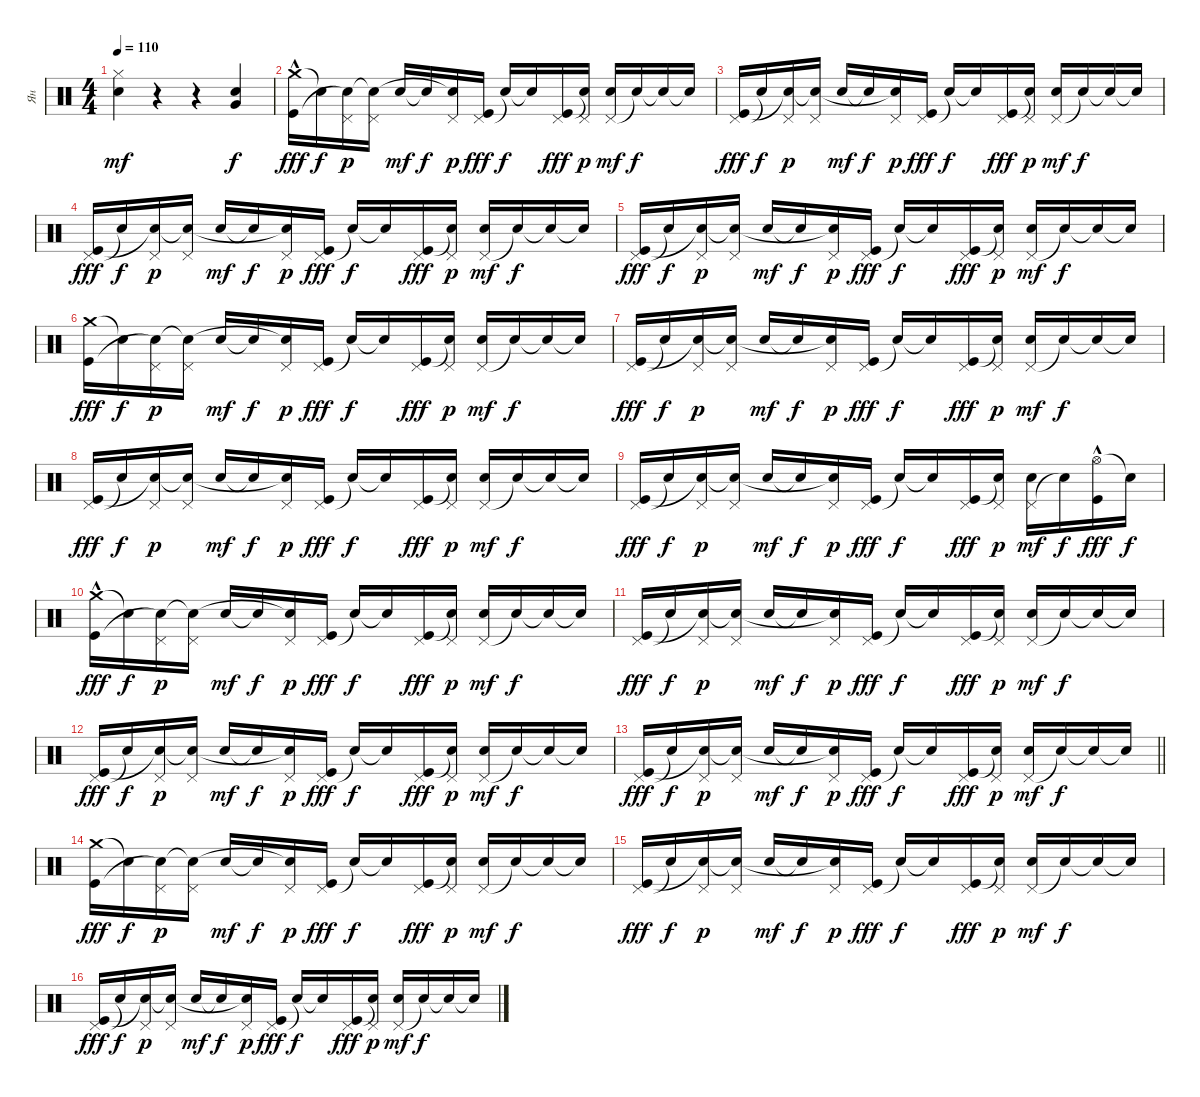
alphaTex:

\track ("Ян " "Ян ") {instrument percussion}
\staff
\articulation defaults
\ts (4 4)
\tempo 110
\clef neutral
\ks c
("Hi-Hat (closed)" "Snare (hit) 2").4{dy mf} r.4 r.4 ("Very Low Tom (hit)" "Snare (hit) 2").4{dy f} |
("Crash medium (hit)" "Kick (hit)"{hac}).16{dy fff} "Snare (hit)"{t}.16{dy f} ("Pedal Hi-Hat (hit)" "Snare (hit)"{t}).16{dy p} ("Pedal Hi-Hat (hit)" "Snare (hit)"{t}).16 "Snare (hit) 2".16{dy mf} "Snare (hit)"{t}.16{dy f} ("Pedal Hi-Hat (hit)" "Snare (hit)"{t}).16{dy p} ("Pedal Hi-Hat (hit)" "Kick (hit)").16{dy fff} "Snare (hit)"{t}.16{dy f} "Snare (hit)"{t}.16 ("Pedal Hi-Hat (hit)" "Kick (hit)").16{dy fff} ("Pedal Hi-Hat (hit)" "Snare (hit)"{t}).16{dy p} ("Pedal Hi-Hat (hit)" "Snare (hit) 2").16{dy mf} "Snare (hit)"{t}.16{dy f} "Snare (hit)"{t}.16 "Snare (hit)"{t}.16 |
("Pedal Hi-Hat (hit)" "Kick (hit)").16{dy fff} "Snare (hit)"{t}.16{dy f} ("Pedal Hi-Hat (hit)" "Snare (hit)"{t}).16{dy p} ("Pedal Hi-Hat (hit)" "Snare (hit)"{t}).16 "Snare (hit) 2".16{dy mf} "Snare (hit)"{t}.16{dy f} ("Pedal Hi-Hat (hit)" "Snare (hit)"{t}).16{dy p} ("Pedal Hi-Hat (hit)" "Kick (hit)").16{dy fff} "Snare (hit)"{t}.16{dy f} "Snare (hit)"{t}.16 ("Pedal Hi-Hat (hit)" "Kick (hit)").16{dy fff} ("Pedal Hi-Hat (hit)" "Snare (hit)"{t}).16{dy p} ("Pedal Hi-Hat (hit)" "Snare (hit) 2").16{dy mf} "Snare (hit)"{t}.16{dy f} "Snare (hit)"{t}.16 "Snare (hit)"{t}.16 |
("Pedal Hi-Hat (hit)" "Kick (hit)").16{dy fff} "Snare (hit)"{t}.16{dy f} ("Pedal Hi-Hat (hit)" "Snare (hit)"{t}).16{dy p} ("Pedal Hi-Hat (hit)" "Snare (hit)"{t}).16 "Snare (hit) 2".16{dy mf} "Snare (hit)"{t}.16{dy f} ("Pedal Hi-Hat (hit)" "Snare (hit)"{t}).16{dy p} ("Pedal Hi-Hat (hit)" "Kick (hit)").16{dy fff} "Snare (hit)"{t}.16{dy f} "Snare (hit)"{t}.16 ("Pedal Hi-Hat (hit)" "Kick (hit)").16{dy fff} ("Pedal Hi-Hat (hit)" "Snare (hit)"{t}).16{dy p} ("Pedal Hi-Hat (hit)" "Snare (hit) 2").16{dy mf} "Snare (hit)"{t}.16{dy f} "Snare (hit)"{t}.16 "Snare (hit)"{t}.16 |
("Pedal Hi-Hat (hit)" "Kick (hit)").16{dy fff} "Snare (hit)"{t}.16{dy f} ("Pedal Hi-Hat (hit)" "Snare (hit)"{t}).16{dy p} ("Pedal Hi-Hat (hit)" "Snare (hit)"{t}).16 "Snare (hit) 2".16{dy mf} "Snare (hit)"{t}.16{dy f} ("Pedal Hi-Hat (hit)" "Snare (hit)"{t}).16{dy p} ("Pedal Hi-Hat (hit)" "Kick (hit)").16{dy fff} "Snare (hit)"{t}.16{dy f} "Snare (hit)"{t}.16 ("Pedal Hi-Hat (hit)" "Kick (hit)").16{dy fff} ("Pedal Hi-Hat (hit)" "Snare (hit)"{t}).16{dy p} ("Pedal Hi-Hat (hit)" "Snare (hit) 2").16{dy mf} "Snare (hit)"{t}.16{dy f} "Snare (hit)"{t}.16 "Snare (hit)"{t}.16 |
("Crash medium (hit)" "Kick (hit)").16{dy fff} "Snare (hit)"{t}.16{dy f} ("Pedal Hi-Hat (hit)" "Snare (hit)"{t}).16{dy p} ("Pedal Hi-Hat (hit)" "Snare (hit)"{t}).16 "Snare (hit) 2".16{dy mf} "Snare (hit)"{t}.16{dy f} ("Pedal Hi-Hat (hit)" "Snare (hit)"{t}).16{dy p} ("Pedal Hi-Hat (hit)" "Kick (hit)").16{dy fff} "Snare (hit)"{t}.16{dy f} "Snare (hit)"{t}.16 ("Pedal Hi-Hat (hit)" "Kick (hit)").16{dy fff} ("Pedal Hi-Hat (hit)" "Snare (hit)"{t}).16{dy p} ("Pedal Hi-Hat (hit)" "Snare (hit) 2").16{dy mf} "Snare (hit)"{t}.16{dy f} "Snare (hit)"{t}.16 "Snare (hit)"{t}.16 |
("Pedal Hi-Hat (hit)" "Kick (hit)").16{dy fff} "Snare (hit)"{t}.16{dy f} ("Pedal Hi-Hat (hit)" "Snare (hit)"{t}).16{dy p} ("Pedal Hi-Hat (hit)" "Snare (hit)"{t}).16 "Snare (hit) 2".16{dy mf} "Snare (hit)"{t}.16{dy f} ("Pedal Hi-Hat (hit)" "Snare (hit)"{t}).16{dy p} ("Pedal Hi-Hat (hit)" "Kick (hit)").16{dy fff} "Snare (hit)"{t}.16{dy f} "Snare (hit)"{t}.16 ("Pedal Hi-Hat (hit)" "Kick (hit)").16{dy fff} ("Pedal Hi-Hat (hit)" "Snare (hit)"{t}).16{dy p} ("Pedal Hi-Hat (hit)" "Snare (hit) 2").16{dy mf} "Snare (hit)"{t}.16{dy f} "Snare (hit)"{t}.16 "Snare (hit)"{t}.16 |
("Pedal Hi-Hat (hit)" "Kick (hit)").16{dy fff} "Snare (hit)"{t}.16{dy f} ("Pedal Hi-Hat (hit)" "Snare (hit)"{t}).16{dy p} ("Pedal Hi-Hat (hit)" "Snare (hit)"{t}).16 "Snare (hit) 2".16{dy mf} "Snare (hit)"{t}.16{dy f} ("Pedal Hi-Hat (hit)" "Snare (hit)"{t}).16{dy p} ("Pedal Hi-Hat (hit)" "Kick (hit)").16{dy fff} "Snare (hit)"{t}.16{dy f} "Snare (hit)"{t}.16 ("Pedal Hi-Hat (hit)" "Kick (hit)").16{dy fff} ("Pedal Hi-Hat (hit)" "Snare (hit)"{t}).16{dy p} ("Pedal Hi-Hat (hit)" "Snare (hit) 2").16{dy mf} "Snare (hit)"{t}.16{dy f} "Snare (hit)"{t}.16 "Snare (hit)"{t}.16 |
("Pedal Hi-Hat (hit)" "Kick (hit)").16{dy fff} "Snare (hit)"{t}.16{dy f} ("Pedal Hi-Hat (hit)" "Snare (hit)"{t}).16{dy p} ("Pedal Hi-Hat (hit)" "Snare (hit)"{t}).16 "Snare (hit) 2".16{dy mf} "Snare (hit)"{t}.16{dy f} ("Pedal Hi-Hat (hit)" "Snare (hit)"{t}).16{dy p} ("Pedal Hi-Hat (hit)" "Kick (hit)").16{dy fff} "Snare (hit)"{t}.16{dy f} "Snare (hit)"{t}.16 ("Pedal Hi-Hat (hit)" "Kick (hit)").16{dy fff} ("Pedal Hi-Hat (hit)" "Snare (hit)"{t}).16{dy p} ("Pedal Hi-Hat (hit)" "Snare (hit) 2").16{dy mf} "Snare (hit)"{t}.16{dy f} ("Hi-Hat (open)" "Kick (hit)"{hac}).16{dy fff} "Snare (hit)"{t}.16{dy f} |
("Crash medium (hit)" "Kick (hit)"{hac}).16{dy fff} "Snare (hit)"{t}.16{dy f} ("Pedal Hi-Hat (hit)" "Snare (hit)"{t}).16{dy p} ("Pedal Hi-Hat (hit)" "Snare (hit)"{t}).16 "Snare (hit) 2".16{dy mf} "Snare (hit)"{t}.16{dy f} ("Pedal Hi-Hat (hit)" "Snare (hit)"{t}).16{dy p} ("Pedal Hi-Hat (hit)" "Kick (hit)").16{dy fff} "Snare (hit)"{t}.16{dy f} "Snare (hit)"{t}.16 ("Pedal Hi-Hat (hit)" "Kick (hit)").16{dy fff} ("Pedal Hi-Hat (hit)" "Snare (hit)"{t}).16{dy p} ("Pedal Hi-Hat (hit)" "Snare (hit) 2").16{dy mf} "Snare (hit)"{t}.16{dy f} "Snare (hit)"{t}.16 "Snare (hit)"{t}.16 |
("Pedal Hi-Hat (hit)" "Kick (hit)").16{dy fff} "Snare (hit)"{t}.16{dy f} ("Pedal Hi-Hat (hit)" "Snare (hit)"{t}).16{dy p} ("Pedal Hi-Hat (hit)" "Snare (hit)"{t}).16 "Snare (hit) 2".16{dy mf} "Snare (hit)"{t}.16{dy f} ("Pedal Hi-Hat (hit)" "Snare (hit)"{t}).16{dy p} ("Pedal Hi-Hat (hit)" "Kick (hit)").16{dy fff} "Snare (hit)"{t}.16{dy f} "Snare (hit)"{t}.16 ("Pedal Hi-Hat (hit)" "Kick (hit)").16{dy fff} ("Pedal Hi-Hat (hit)" "Snare (hit)"{t}).16{dy p} ("Pedal Hi-Hat (hit)" "Snare (hit) 2").16{dy mf} "Snare (hit)"{t}.16{dy f} "Snare (hit)"{t}.16 "Snare (hit)"{t}.16 |
("Pedal Hi-Hat (hit)" "Kick (hit)").16{dy fff} "Snare (hit)"{t}.16{dy f} ("Pedal Hi-Hat (hit)" "Snare (hit)"{t}).16{dy p} ("Pedal Hi-Hat (hit)" "Snare (hit)"{t}).16 "Snare (hit) 2".16{dy mf} "Snare (hit)"{t}.16{dy f} ("Pedal Hi-Hat (hit)" "Snare (hit)"{t}).16{dy p} ("Pedal Hi-Hat (hit)" "Kick (hit)").16{dy fff} "Snare (hit)"{t}.16{dy f} "Snare (hit)"{t}.16 ("Pedal Hi-Hat (hit)" "Kick (hit)").16{dy fff} ("Pedal Hi-Hat (hit)" "Snare (hit)"{t}).16{dy p} ("Pedal Hi-Hat (hit)" "Snare (hit) 2").16{dy mf} "Snare (hit)"{t}.16{dy f} "Snare (hit)"{t}.16 "Snare (hit)"{t}.16 |
\barLineRight lightlight
("Pedal Hi-Hat (hit)" "Kick (hit)").16{dy fff} "Snare (hit)"{t}.16{dy f} ("Pedal Hi-Hat (hit)" "Snare (hit)"{t}).16{dy p} ("Pedal Hi-Hat (hit)" "Snare (hit)"{t}).16 "Snare (hit) 2".16{dy mf} "Snare (hit)"{t}.16{dy f} ("Pedal Hi-Hat (hit)" "Snare (hit)"{t}).16{dy p} ("Pedal Hi-Hat (hit)" "Kick (hit)").16{dy fff} "Snare (hit)"{t}.16{dy f} "Snare (hit)"{t}.16 ("Pedal Hi-Hat (hit)" "Kick (hit)").16{dy fff} ("Pedal Hi-Hat (hit)" "Snare (hit)"{t}).16{dy p} ("Pedal Hi-Hat (hit)" "Snare (hit) 2").16{dy mf} "Snare (hit)"{t}.16{dy f} "Snare (hit)"{t}.16 "Snare (hit)"{t}.16 |
("Crash medium (hit)" "Kick (hit)").16{dy fff} "Snare (hit)"{t}.16{dy f} ("Pedal Hi-Hat (hit)" "Snare (hit)"{t}).16{dy p} ("Pedal Hi-Hat (hit)" "Snare (hit)"{t}).16 "Snare (hit) 2".16{dy mf} "Snare (hit)"{t}.16{dy f} ("Pedal Hi-Hat (hit)" "Snare (hit)"{t}).16{dy p} ("Pedal Hi-Hat (hit)" "Kick (hit)").16{dy fff} "Snare (hit)"{t}.16{dy f} "Snare (hit)"{t}.16 ("Pedal Hi-Hat (hit)" "Kick (hit)").16{dy fff} ("Pedal Hi-Hat (hit)" "Snare (hit)"{t}).16{dy p} ("Pedal Hi-Hat (hit)" "Snare (hit) 2").16{dy mf} "Snare (hit)"{t}.16{dy f} "Snare (hit)"{t}.16 "Snare (hit)"{t}.16 |
("Pedal Hi-Hat (hit)" "Kick (hit)").16{dy fff} "Snare (hit)"{t}.16{dy f} ("Pedal Hi-Hat (hit)" "Snare (hit)"{t}).16{dy p} ("Pedal Hi-Hat (hit)" "Snare (hit)"{t}).16 "Snare (hit) 2".16{dy mf} "Snare (hit)"{t}.16{dy f} ("Pedal Hi-Hat (hit)" "Snare (hit)"{t}).16{dy p} ("Pedal Hi-Hat (hit)" "Kick (hit)").16{dy fff} "Snare (hit)"{t}.16{dy f} "Snare (hit)"{t}.16 ("Pedal Hi-Hat (hit)" "Kick (hit)").16{dy fff} ("Pedal Hi-Hat (hit)" "Snare (hit)"{t}).16{dy p} ("Pedal Hi-Hat (hit)" "Snare (hit) 2").16{dy mf} "Snare (hit)"{t}.16{dy f} "Snare (hit)"{t}.16 "Snare (hit)"{t}.16 |
("Pedal Hi-Hat (hit)" "Kick (hit)").16{dy fff} "Snare (hit)"{t}.16{dy f} ("Pedal Hi-Hat (hit)" "Snare (hit)"{t}).16{dy p} ("Pedal Hi-Hat (hit)" "Snare (hit)"{t}).16 "Snare (hit) 2".16{dy mf} "Snare (hit)"{t}.16{dy f} ("Pedal Hi-Hat (hit)" "Snare (hit)"{t}).16{dy p} ("Pedal Hi-Hat (hit)" "Kick (hit)").16{dy fff} "Snare (hit)"{t}.16{dy f} "Snare (hit)"{t}.16 ("Pedal Hi-Hat (hit)" "Kick (hit)").16{dy fff} ("Pedal Hi-Hat (hit)" "Snare (hit)"{t}).16{dy p} ("Pedal Hi-Hat (hit)" "Snare (hit) 2").16{dy mf} "Snare (hit)"{t}.16{dy f} "Snare (hit)"{t}.16 "Snare (hit)"{t}.16
